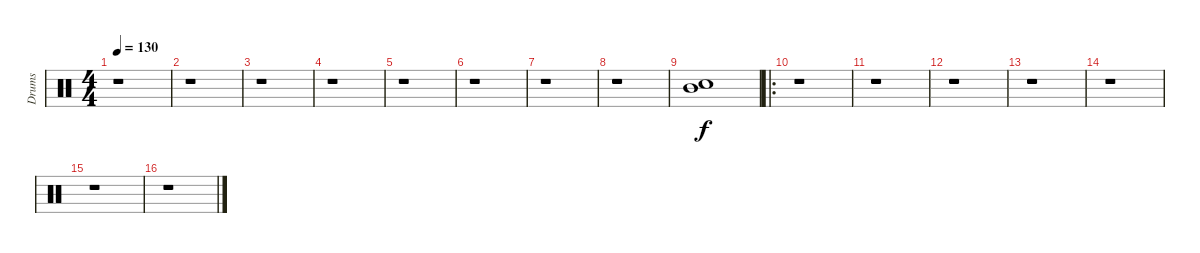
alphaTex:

\track ("Drums" "Drums") {instrument percussion}
\staff {score}
\articulation defaults
\ts (4 4)
\tempo 130
\clef neutral
\ks c
r.1{dy f} |
r.1 |
r.1 |
r.1 |
r.1 |
r.1 |
r.1 |
r.1 |
("Snare (hit) 2" "Mid Tom (hit)").1 |
\ro
r.1 |
r.1 |
r.1 |
r.1 |
r.1 |
r.1 |
r.1
